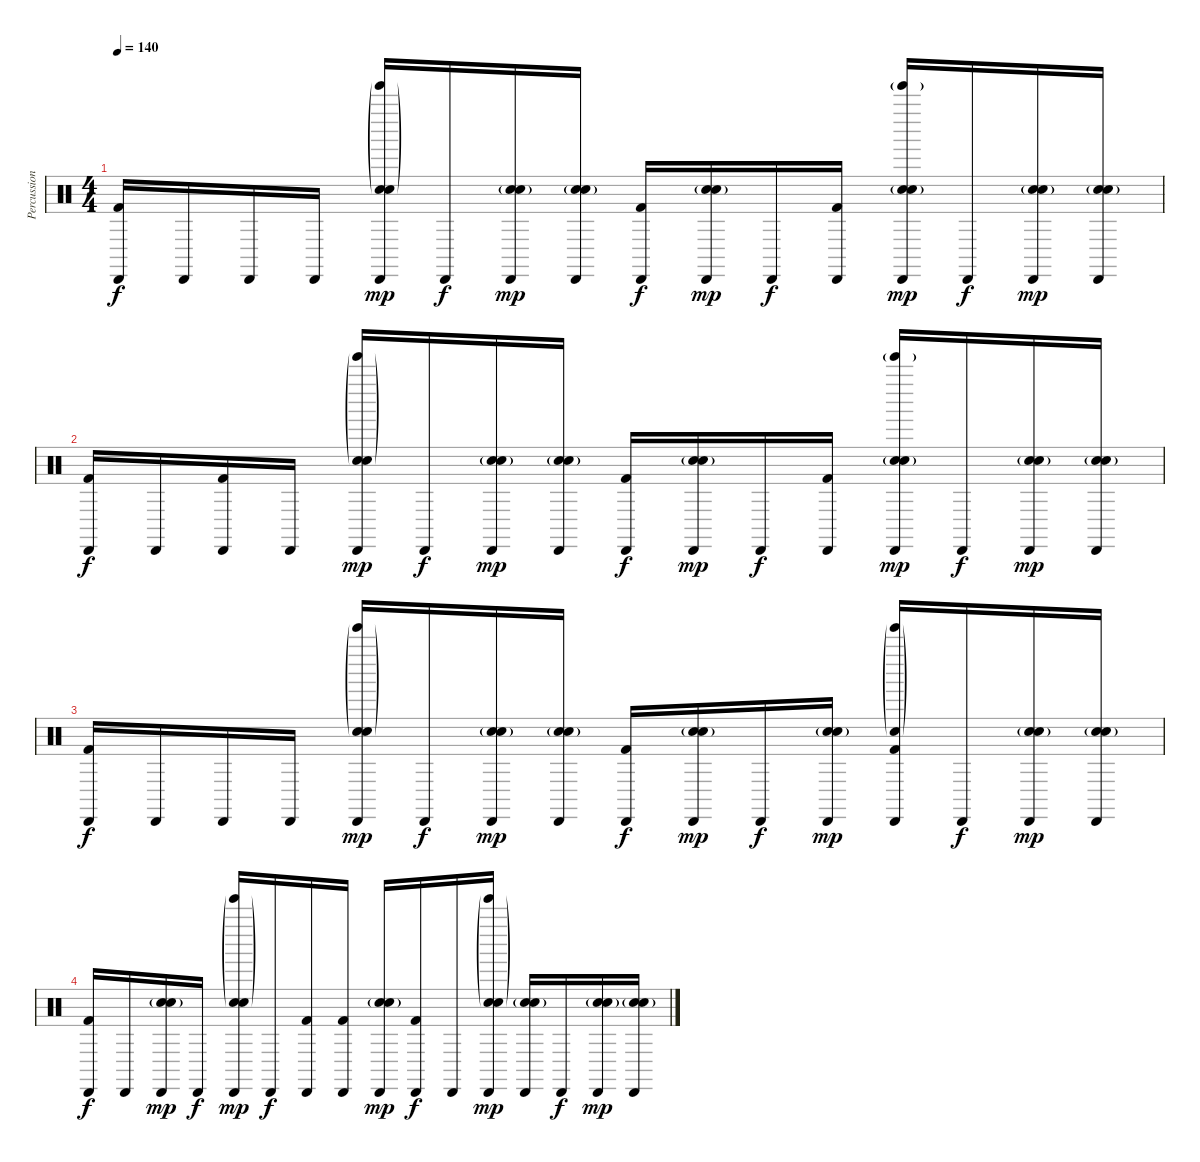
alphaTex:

\track ("Percussion" "Percussion") {instrument percussion}
\staff {score}
\articulation defaults
\ts (4 4)
\tempo 140
\clef neutral
\ks c
("Cabasa (hit)" "Kick (hit) 2").16{dy f} "Cabasa (hit)".16 "Cabasa (hit)".16 "Cabasa (hit)".16 ("Tinkle Bell (hit)"{g} "Cabasa (hit)" "Snare (hit) 2"{g} "Electric Snare (hit)").16{dy mp} "Cabasa (hit)".16{dy f} ("Cabasa (hit)" "Snare (hit) 2"{g} "Electric Snare (hit)").16{dy mp} ("Cabasa (hit)" "Snare (hit) 2"{g} "Electric Snare (hit)").16 ("Cabasa (hit)" "Kick (hit) 2").16{dy f} ("Cabasa (hit)" "Electric Snare (hit)" "Snare (hit) 2"{g}).16{dy mp} "Cabasa (hit)".16{dy f} ("Cabasa (hit)" "Kick (hit) 2").16 ("Tinkle Bell (hit)"{g} "Cabasa (hit)" "Electric Snare (hit)" "Snare (hit) 2"{g}).16{dy mp} "Cabasa (hit)".16{dy f} ("Cabasa (hit)" "Electric Snare (hit)" "Snare (hit) 2"{g}).16{dy mp} ("Cabasa (hit)" "Electric Snare (hit)" "Snare (hit) 2"{g}).16 |
("Cabasa (hit)" "Kick (hit) 2").16{dy f} "Cabasa (hit)".16 ("Cabasa (hit)" "Kick (hit) 2").16 "Cabasa (hit)".16 ("Tinkle Bell (hit)"{g} "Cabasa (hit)" "Snare (hit) 2"{g} "Electric Snare (hit)").16{dy mp} "Cabasa (hit)".16{dy f} ("Cabasa (hit)" "Snare (hit) 2"{g} "Electric Snare (hit)").16{dy mp} ("Cabasa (hit)" "Snare (hit) 2"{g} "Electric Snare (hit)").16 ("Cabasa (hit)" "Kick (hit) 2").16{dy f} ("Cabasa (hit)" "Electric Snare (hit)" "Snare (hit) 2"{g}).16{dy mp} "Cabasa (hit)".16{dy f} ("Cabasa (hit)" "Kick (hit) 2").16 ("Tinkle Bell (hit)"{g} "Cabasa (hit)" "Electric Snare (hit)" "Snare (hit) 2"{g}).16{dy mp} "Cabasa (hit)".16{dy f} ("Cabasa (hit)" "Electric Snare (hit)" "Snare (hit) 2"{g}).16{dy mp} ("Cabasa (hit)" "Electric Snare (hit)" "Snare (hit) 2"{g}).16 |
("Cabasa (hit)" "Kick (hit) 2").16{dy f} "Cabasa (hit)".16 "Cabasa (hit)".16 "Cabasa (hit)".16 ("Tinkle Bell (hit)"{g} "Cabasa (hit)" "Snare (hit) 2"{g} "Electric Snare (hit)").16{dy mp} "Cabasa (hit)".16{dy f} ("Cabasa (hit)" "Snare (hit) 2"{g} "Electric Snare (hit)").16{dy mp} ("Cabasa (hit)" "Snare (hit) 2"{g} "Electric Snare (hit)").16 ("Cabasa (hit)" "Kick (hit) 2").16{dy f} ("Cabasa (hit)" "Electric Snare (hit)" "Snare (hit) 2"{g}).16{dy mp} "Cabasa (hit)".16{dy f} ("Cabasa (hit)" "Snare (hit) 2"{g} "Electric Snare (hit)").16{dy mp} ("Tinkle Bell (hit)"{g} "Cabasa (hit)" "Snare (hit) 2"{g} "Kick (hit) 2").16 "Cabasa (hit)".16{dy f} ("Cabasa (hit)" "Electric Snare (hit)" "Snare (hit) 2"{g}).16{dy mp} ("Cabasa (hit)" "Electric Snare (hit)" "Snare (hit) 2"{g}).16 |
("Cabasa (hit)" "Kick (hit) 2").16{dy f} "Cabasa (hit)".16 ("Cabasa (hit)" "Snare (hit) 2"{g} "Electric Snare (hit)").16{dy mp} "Cabasa (hit)".16{dy f} ("Tinkle Bell (hit)"{g} "Cabasa (hit)" "Snare (hit) 2"{g} "Electric Snare (hit)").16{dy mp} "Cabasa (hit)".16{dy f} ("Cabasa (hit)" "Kick (hit) 2").16 ("Cabasa (hit)" "Kick (hit) 2").16 ("Cabasa (hit)" "Snare (hit) 2"{g} "Electric Snare (hit)").16{dy mp} ("Cabasa (hit)" "Kick (hit) 2").16{dy f} "Cabasa (hit)".16 ("Tinkle Bell (hit)"{g} "Cabasa (hit)" "Snare (hit) 2"{g} "Electric Snare (hit)").16{dy mp} ("Cabasa (hit)" "Snare (hit) 2"{g} "Electric Snare (hit)").16 "Cabasa (hit)".16{dy f} ("Cabasa (hit)" "Electric Snare (hit)" "Snare (hit) 2"{g}).16{dy mp} ("Cabasa (hit)" "Electric Snare (hit)" "Snare (hit) 2"{g}).16
